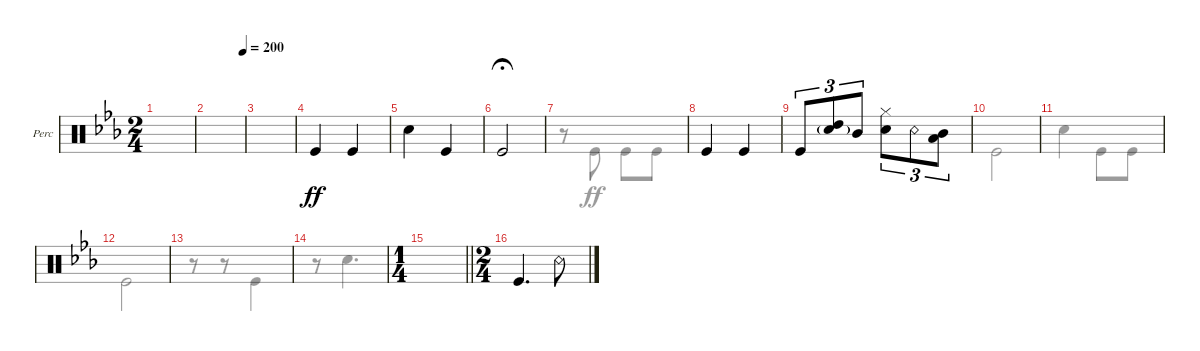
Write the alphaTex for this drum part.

\defaultSystemsLayout 4
\bracketExtendMode groupsimilarinstruments
\firstSystemTrackNameOrientation horizontal
\otherSystemsTrackNameOrientation horizontal
\track ("Body Percussion" "Perc") {instrument percussion}
\staff {score}
\articulation defaults
\voice
\ts (2 4)
\tempo (200 hide)
\clef neutral
\ks cminor
|
\tempo (200 0.96875)
|
\tempo (100 0.875 hide)
|
\tempo (190 hide)
"Kick (hit)".4{dy ff} "Kick (hit)".4 |
"Snare (hit) 2".4 "Kick (hit)".4 |
"Kick (hit)".2{fermata (medium 0.85)} |
|
"Kick (hit)".4 "Kick (hit)".4 |
"Kick (hit)".8{tu (3 2)} ("Snare (hit) 2"{g} "High Tom (hit)").8{tu (3 2)} "Mid Tom (hit)".8{tu (3 2)} ("Snare (hit) 2" "Hi-Hat (closed)").8{tu (3 2)} "Snare (rim shot)".8{tu (3 2)} ("Mid Tom (hit)" "Low Tom (hit)").8{tu (3 2)} |
|
|
|
|
|
\ts (1 4)
\barLineRight lightlight
|
\ts (2 4)
"Kick (hit)".4{d} "Snare (rim shot)".8
\voice
\clef neutral
\ottava regular
\simile none
\ks cminor
|
|
|
|
|
|
r.8 "Kick (hit)".8{dy ff} "Kick (hit)".8 "Kick (hit)".8 |
|
|
"Kick (hit)".2{fermata (medium 0.85)} |
"Snare (hit) 2".4 "Kick (hit)".8 "Kick (hit)".8 |
"Kick (hit)".2 |
r.8 r.8 "Kick (hit)".4 |
r.8 "Snare (hit) 2".4{d} |
\barLineRight lightlight
|
